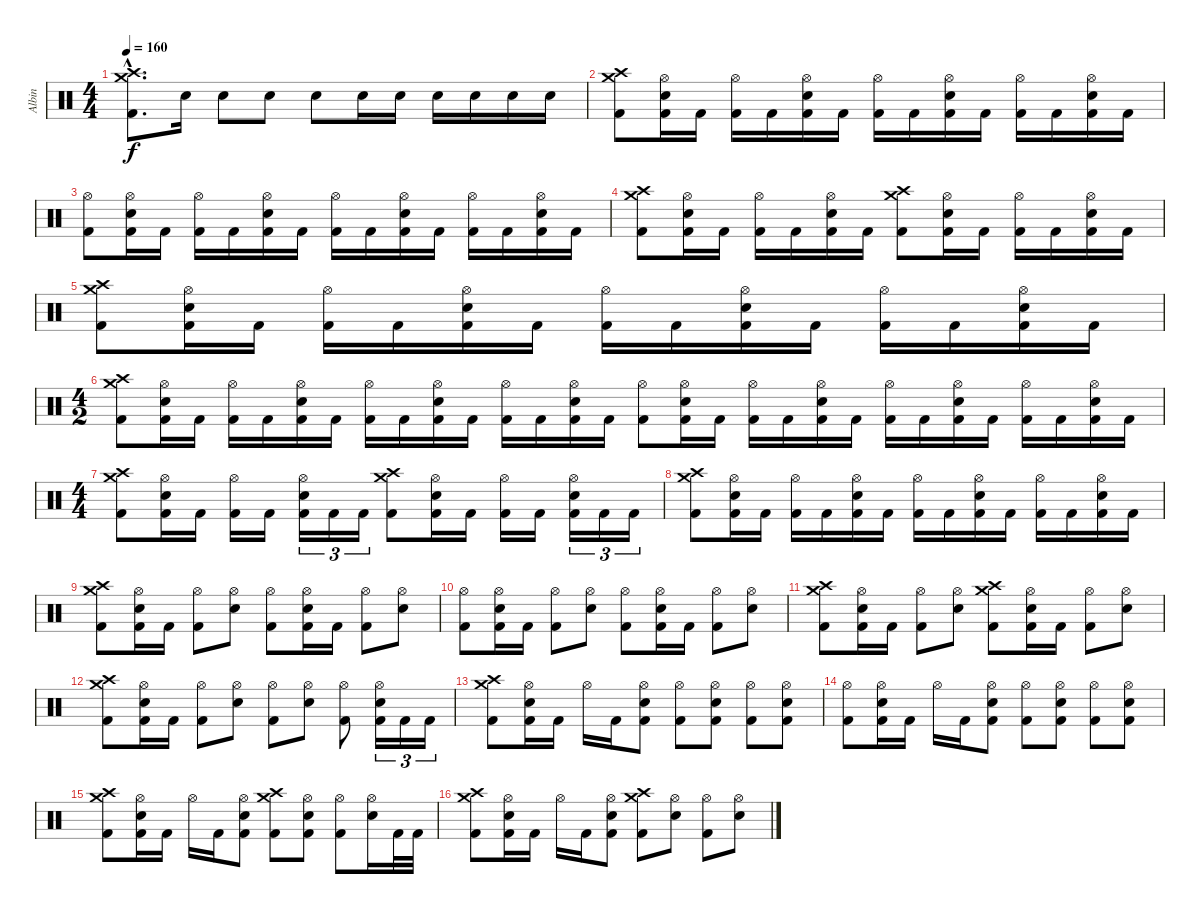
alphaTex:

\track ("Albin" "Albin") {instrument percussion}
\staff {score}
\articulation defaults
\ts (4 4)
\tempo 160
\clef neutral
\ks c
("Kick (hit) 2"{hac} "Crash high (hit)"{hac} "Crash medium (hit)"{hac}).8{d dy f} "Electric Snare (hit)".16 "Electric Snare (hit)".8 "Electric Snare (hit)".8 "Electric Snare (hit)".8 "Electric Snare (hit)".16 "Electric Snare (hit)".16 "Electric Snare (hit)".16 "Electric Snare (hit)".16 "Electric Snare (hit)".16 "Electric Snare (hit)".16 |
("Kick (hit) 2" "Crash high (hit)" "Crash medium (hit)").8 ("Kick (hit) 2" "Electric Snare (hit)" "Hi-Hat (open)").16 "Kick (hit) 2".16 ("Kick (hit) 2" "Hi-Hat (open)").16 "Kick (hit) 2".16 ("Kick (hit) 2" "Electric Snare (hit)" "Hi-Hat (open)").16 "Kick (hit) 2".16 ("Kick (hit) 2" "Hi-Hat (open)").16 "Kick (hit) 2".16 ("Kick (hit) 2" "Electric Snare (hit)" "Hi-Hat (open)").16 "Kick (hit) 2".16 ("Kick (hit) 2" "Hi-Hat (open)").16 "Kick (hit) 2".16 ("Kick (hit) 2" "Electric Snare (hit)" "Hi-Hat (open)").16 "Kick (hit) 2".16 |
("Kick (hit) 2" "Hi-Hat (open)").8 ("Kick (hit) 2" "Electric Snare (hit)" "Hi-Hat (open)").16 "Kick (hit) 2".16 ("Kick (hit) 2" "Hi-Hat (open)").16 "Kick (hit) 2".16 ("Kick (hit) 2" "Electric Snare (hit)" "Hi-Hat (open)").16 "Kick (hit) 2".16 ("Kick (hit) 2" "Hi-Hat (open)").16 "Kick (hit) 2".16 ("Kick (hit) 2" "Electric Snare (hit)" "Hi-Hat (open)").16 "Kick (hit) 2".16 ("Kick (hit) 2" "Hi-Hat (open)").16 "Kick (hit) 2".16 ("Kick (hit) 2" "Electric Snare (hit)" "Hi-Hat (open)").16 "Kick (hit) 2".16 |
("Kick (hit) 2" "Crash high (hit)" "Crash medium (hit)").8 ("Kick (hit) 2" "Electric Snare (hit)" "Hi-Hat (open)").16 "Kick (hit) 2".16 ("Kick (hit) 2" "Hi-Hat (open)").16 "Kick (hit) 2".16 ("Kick (hit) 2" "Electric Snare (hit)" "Hi-Hat (open)").16 "Kick (hit) 2".16 ("Kick (hit) 2" "Crash high (hit)" "Crash medium (hit)").8 ("Kick (hit) 2" "Electric Snare (hit)" "Hi-Hat (open)").16 "Kick (hit) 2".16 ("Kick (hit) 2" "Hi-Hat (open)").16 "Kick (hit) 2".16 ("Kick (hit) 2" "Electric Snare (hit)" "Hi-Hat (open)").16 "Kick (hit) 2".16 |
("Kick (hit) 2" "Crash high (hit)" "Crash medium (hit)").8 ("Kick (hit) 2" "Electric Snare (hit)" "Hi-Hat (open)").16 "Kick (hit) 2".16 ("Kick (hit) 2" "Hi-Hat (open)").16 "Kick (hit) 2".16 ("Kick (hit) 2" "Electric Snare (hit)" "Hi-Hat (open)").16 "Kick (hit) 2".16 ("Kick (hit) 2" "Hi-Hat (open)").16 "Kick (hit) 2".16 ("Kick (hit) 2" "Electric Snare (hit)" "Hi-Hat (open)").16 "Kick (hit) 2".16 ("Kick (hit) 2" "Hi-Hat (open)").16 "Kick (hit) 2".16 ("Kick (hit) 2" "Electric Snare (hit)" "Hi-Hat (open)").16 "Kick (hit) 2".16 |
\ts (4 2)
("Kick (hit) 2" "Crash high (hit)" "Crash medium (hit)").8 ("Kick (hit) 2" "Electric Snare (hit)" "Hi-Hat (open)").16 "Kick (hit) 2".16 ("Kick (hit) 2" "Hi-Hat (open)").16 "Kick (hit) 2".16 ("Kick (hit) 2" "Electric Snare (hit)" "Hi-Hat (open)").16 "Kick (hit) 2".16 ("Kick (hit) 2" "Hi-Hat (open)").16 "Kick (hit) 2".16 ("Kick (hit) 2" "Electric Snare (hit)" "Hi-Hat (open)").16 "Kick (hit) 2".16 ("Kick (hit) 2" "Hi-Hat (open)").16 "Kick (hit) 2".16 ("Kick (hit) 2" "Electric Snare (hit)" "Hi-Hat (open)").16 "Kick (hit) 2".16 ("Kick (hit) 2" "Hi-Hat (open)").8 ("Kick (hit) 2" "Electric Snare (hit)" "Hi-Hat (open)").16 "Kick (hit) 2".16 ("Kick (hit) 2" "Hi-Hat (open)").16 "Kick (hit) 2".16 ("Kick (hit) 2" "Electric Snare (hit)" "Hi-Hat (open)").16 "Kick (hit) 2".16 ("Kick (hit) 2" "Hi-Hat (open)").16 "Kick (hit) 2".16 ("Kick (hit) 2" "Electric Snare (hit)" "Hi-Hat (open)").16 "Kick (hit) 2".16 ("Kick (hit) 2" "Hi-Hat (open)").16 "Kick (hit) 2".16 ("Kick (hit) 2" "Electric Snare (hit)" "Hi-Hat (open)").16 "Kick (hit) 2".16 |
\ts (4 4)
("Kick (hit) 2" "Crash high (hit)" "Crash medium (hit)").8 ("Kick (hit) 2" "Electric Snare (hit)" "Hi-Hat (open)").16 "Kick (hit) 2".16 ("Kick (hit) 2" "Hi-Hat (open)").16 "Kick (hit) 2".16 ("Kick (hit) 2" "Electric Snare (hit)" "Hi-Hat (open)").16{tu (3 2)} "Kick (hit) 2".16{tu (3 2)} "Kick (hit) 2".16{tu (3 2)} ("Kick (hit) 2" "Crash high (hit)" "Crash medium (hit)").8 ("Kick (hit) 2" "Electric Snare (hit)" "Hi-Hat (open)").16 "Kick (hit) 2".16 ("Kick (hit) 2" "Hi-Hat (open)").16 "Kick (hit) 2".16 ("Kick (hit) 2" "Electric Snare (hit)" "Hi-Hat (open)").16{tu (3 2)} "Kick (hit) 2".16{tu (3 2)} "Kick (hit) 2".16{tu (3 2)} |
("Kick (hit) 2" "Crash high (hit)" "Crash medium (hit)").8 ("Kick (hit) 2" "Electric Snare (hit)" "Hi-Hat (open)").16 "Kick (hit) 2".16 ("Kick (hit) 2" "Hi-Hat (open)").16 "Kick (hit) 2".16 ("Kick (hit) 2" "Electric Snare (hit)" "Hi-Hat (open)").16 "Kick (hit) 2".16 ("Kick (hit) 2" "Hi-Hat (open)").16 "Kick (hit) 2".16 ("Kick (hit) 2" "Electric Snare (hit)" "Hi-Hat (open)").16 "Kick (hit) 2".16 ("Kick (hit) 2" "Hi-Hat (open)").16 "Kick (hit) 2".16 ("Kick (hit) 2" "Electric Snare (hit)" "Hi-Hat (open)").16 "Kick (hit) 2".16 |
("Kick (hit) 2" "Crash high (hit)" "Crash medium (hit)").8 ("Kick (hit) 2" "Electric Snare (hit)" "Hi-Hat (open)").16 "Kick (hit) 2".16 ("Kick (hit) 2" "Hi-Hat (open)").8 ("Electric Snare (hit)" "Hi-Hat (open)").8 ("Kick (hit) 2" "Hi-Hat (open)").8 ("Kick (hit) 2" "Electric Snare (hit)" "Hi-Hat (open)").16 "Kick (hit) 2".16 ("Kick (hit) 2" "Hi-Hat (open)").8 ("Electric Snare (hit)" "Hi-Hat (open)").8 |
("Kick (hit) 2" "Hi-Hat (open)").8 ("Kick (hit) 2" "Electric Snare (hit)" "Hi-Hat (open)").16 "Kick (hit) 2".16 ("Kick (hit) 2" "Hi-Hat (open)").8 ("Electric Snare (hit)" "Hi-Hat (open)").8 ("Kick (hit) 2" "Hi-Hat (open)").8 ("Kick (hit) 2" "Electric Snare (hit)" "Hi-Hat (open)").16 "Kick (hit) 2".16 ("Kick (hit) 2" "Hi-Hat (open)").8 ("Electric Snare (hit)" "Hi-Hat (open)").8 |
("Kick (hit) 2" "Crash high (hit)" "Crash medium (hit)").8 ("Kick (hit) 2" "Electric Snare (hit)" "Hi-Hat (open)").16 "Kick (hit) 2".16 ("Kick (hit) 2" "Hi-Hat (open)").8 ("Electric Snare (hit)" "Hi-Hat (open)").8 ("Kick (hit) 2" "Crash high (hit)" "Crash medium (hit)").8 ("Kick (hit) 2" "Electric Snare (hit)" "Hi-Hat (open)").16 "Kick (hit) 2".16 ("Kick (hit) 2" "Hi-Hat (open)").8 ("Electric Snare (hit)" "Hi-Hat (open)").8 |
("Kick (hit) 2" "Crash high (hit)" "Crash medium (hit)").8 ("Kick (hit) 2" "Electric Snare (hit)" "Hi-Hat (open)").16 "Kick (hit) 2".16 ("Kick (hit) 2" "Hi-Hat (open)").8 ("Electric Snare (hit)" "Hi-Hat (open)").8 ("Kick (hit) 2" "Hi-Hat (open)").8 ("Electric Snare (hit)" "Hi-Hat (open)").8 ("Kick (hit) 2" "Hi-Hat (open)").8 ("Kick (hit) 2" "Electric Snare (hit)" "Hi-Hat (open)").16{tu (3 2)} "Kick (hit) 2".16{tu (3 2)} "Kick (hit) 2".16{tu (3 2)} |
("Kick (hit) 2" "Crash high (hit)" "Crash medium (hit)").8 ("Kick (hit) 2" "Electric Snare (hit)" "Hi-Hat (open)").16 "Kick (hit) 2".16 "Hi-Hat (open)".16 "Kick (hit) 2".16 ("Kick (hit) 2" "Electric Snare (hit)" "Hi-Hat (open)").8 ("Kick (hit) 2" "Hi-Hat (open)").8 ("Kick (hit) 2" "Electric Snare (hit)" "Hi-Hat (open)").8 ("Kick (hit) 2" "Hi-Hat (open)").8 ("Kick (hit) 2" "Electric Snare (hit)" "Hi-Hat (open)").8 |
("Kick (hit) 2" "Hi-Hat (open)").8 ("Kick (hit) 2" "Electric Snare (hit)" "Hi-Hat (open)").16 "Kick (hit) 2".16 "Hi-Hat (open)".16 "Kick (hit) 2".16 ("Kick (hit) 2" "Electric Snare (hit)" "Hi-Hat (open)").8 ("Kick (hit) 2" "Hi-Hat (open)").8 ("Kick (hit) 2" "Electric Snare (hit)" "Hi-Hat (open)").8 ("Kick (hit) 2" "Hi-Hat (open)").8 ("Kick (hit) 2" "Electric Snare (hit)" "Hi-Hat (open)").8 |
("Kick (hit) 2" "Crash high (hit)" "Crash medium (hit)").8 ("Kick (hit) 2" "Electric Snare (hit)" "Hi-Hat (open)").16 "Kick (hit) 2".16 "Hi-Hat (open)".16 "Kick (hit) 2".16 ("Kick (hit) 2" "Electric Snare (hit)" "Hi-Hat (open)").8 ("Kick (hit) 2" "Crash high (hit)" "Crash medium (hit)").8 ("Kick (hit) 2" "Electric Snare (hit)" "Hi-Hat (open)").8 ("Kick (hit) 2" "Hi-Hat (open)").8 ("Electric Snare (hit)" "Hi-Hat (open)").16 "Kick (hit) 2".32 "Kick (hit) 2".32 |
("Kick (hit) 2" "Crash high (hit)" "Crash medium (hit)").8 ("Kick (hit) 2" "Electric Snare (hit)" "Hi-Hat (open)").16 "Kick (hit) 2".16 "Hi-Hat (open)".16 "Kick (hit) 2".16 ("Kick (hit) 2" "Electric Snare (hit)" "Hi-Hat (open)").8 ("Kick (hit) 2" "Crash high (hit)" "Crash medium (hit)").8 ("Electric Snare (hit)" "Hi-Hat (open)").8 ("Kick (hit) 2" "Hi-Hat (open)").8 ("Electric Snare (hit)" "Hi-Hat (open)").8
